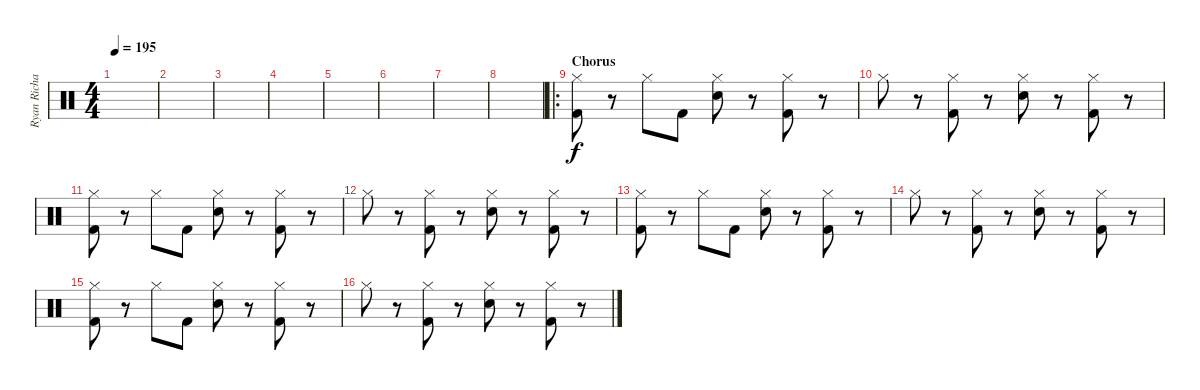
\track ("Ryan Richards" "Ryan Richa") {instrument percussion}
\staff {score}
\articulation defaults
\ts (4 4)
\tempo 195
\clef neutral
\ks c
|
|
|
|
|
|
|
|
\ro
\section ("" "Chorus")
("Kick (hit) 2" "Hi-Hat (closed)").8 r.8 "Hi-Hat (closed)".8 "Kick (hit) 2".8 ("Hi-Hat (closed)" "Snare (hit) 2").8 r.8 ("Kick (hit) 2" "Hi-Hat (closed)").8 r.8 |
"Hi-Hat (closed)".8 r.8 ("Kick (hit) 2" "Hi-Hat (closed)").8 r.8 ("Hi-Hat (closed)" "Snare (hit) 2").8 r.8 ("Kick (hit) 2" "Hi-Hat (closed)").8 r.8 |
("Kick (hit) 2" "Hi-Hat (closed)").8 r.8 "Hi-Hat (closed)".8 "Kick (hit) 2".8 ("Hi-Hat (closed)" "Snare (hit) 2").8 r.8 ("Kick (hit) 2" "Hi-Hat (closed)").8 r.8 |
"Hi-Hat (closed)".8 r.8 ("Kick (hit) 2" "Hi-Hat (closed)").8 r.8 ("Hi-Hat (closed)" "Snare (hit) 2").8 r.8 ("Kick (hit) 2" "Hi-Hat (closed)").8 r.8 |
("Kick (hit) 2" "Hi-Hat (closed)").8 r.8 "Hi-Hat (closed)".8 "Kick (hit) 2".8 ("Hi-Hat (closed)" "Snare (hit) 2").8 r.8 ("Kick (hit) 2" "Hi-Hat (closed)").8 r.8 |
"Hi-Hat (closed)".8 r.8 ("Kick (hit) 2" "Hi-Hat (closed)").8 r.8 ("Hi-Hat (closed)" "Snare (hit) 2").8 r.8 ("Kick (hit) 2" "Hi-Hat (closed)").8 r.8 |
("Kick (hit) 2" "Hi-Hat (closed)").8 r.8 "Hi-Hat (closed)".8 "Kick (hit) 2".8 ("Hi-Hat (closed)" "Snare (hit) 2").8 r.8 ("Kick (hit) 2" "Hi-Hat (closed)").8 r.8 |
"Hi-Hat (closed)".8 r.8 ("Kick (hit) 2" "Hi-Hat (closed)").8 r.8 ("Hi-Hat (closed)" "Snare (hit) 2").8 r.8 ("Kick (hit) 2" "Hi-Hat (closed)").8 r.8
